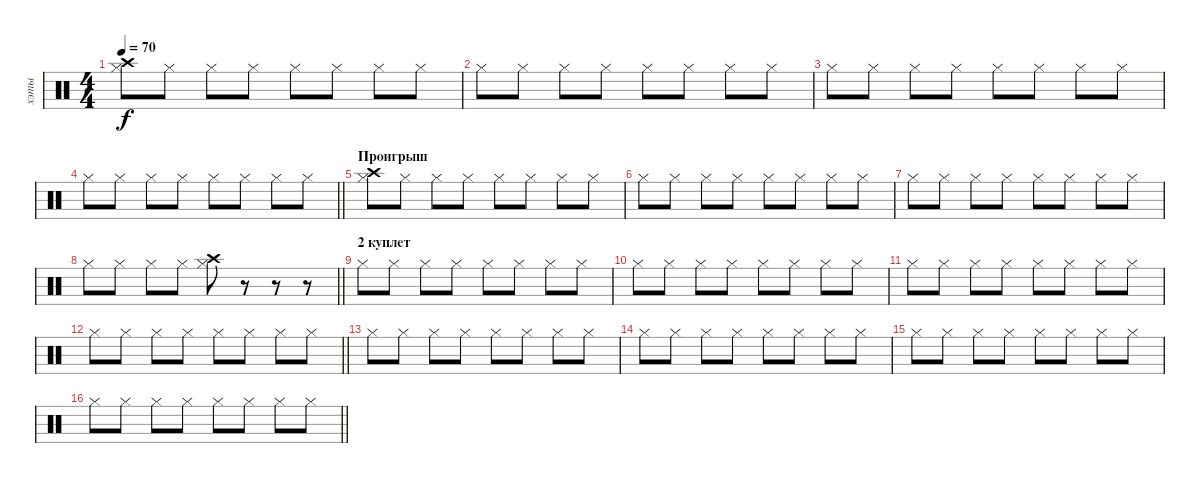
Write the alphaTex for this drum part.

\track ("хэты" "хэты") {instrument percussion}
\staff {score}
\articulation defaults
\ts (4 4)
\tempo 70
\clef neutral
\ks c
("Crash high (hit)" "Hi-Hat (closed)").8{dy f} "Hi-Hat (closed)".8 "Hi-Hat (closed)".8 "Hi-Hat (closed)".8 "Hi-Hat (closed)".8 "Hi-Hat (closed)".8 "Hi-Hat (closed)".8 "Hi-Hat (closed)".8 |
"Hi-Hat (closed)".8 "Hi-Hat (closed)".8 "Hi-Hat (closed)".8 "Hi-Hat (closed)".8 "Hi-Hat (closed)".8 "Hi-Hat (closed)".8 "Hi-Hat (closed)".8 "Hi-Hat (closed)".8 |
"Hi-Hat (closed)".8 "Hi-Hat (closed)".8 "Hi-Hat (closed)".8 "Hi-Hat (closed)".8 "Hi-Hat (closed)".8 "Hi-Hat (closed)".8 "Hi-Hat (closed)".8 "Hi-Hat (closed)".8 |
\barLineRight lightlight "Hi-Hat (closed)".8 "Hi-Hat (closed)".8 "Hi-Hat (closed)".8 "Hi-Hat (closed)".8 "Hi-Hat (closed)".8 "Hi-Hat (closed)".8 "Hi-Hat (closed)".8 "Hi-Hat (closed)".8
|
\section ("" "Проигрыш")
("Crash high (hit)" "Hi-Hat (closed)").8 "Hi-Hat (closed)".8 "Hi-Hat (closed)".8 "Hi-Hat (closed)".8 "Hi-Hat (closed)".8 "Hi-Hat (closed)".8 "Hi-Hat (closed)".8 "Hi-Hat (closed)".8 |
"Hi-Hat (closed)".8 "Hi-Hat (closed)".8 "Hi-Hat (closed)".8 "Hi-Hat (closed)".8 "Hi-Hat (closed)".8 "Hi-Hat (closed)".8 "Hi-Hat (closed)".8 "Hi-Hat (closed)".8 |
"Hi-Hat (closed)".8 "Hi-Hat (closed)".8 "Hi-Hat (closed)".8 "Hi-Hat (closed)".8 "Hi-Hat (closed)".8 "Hi-Hat (closed)".8 "Hi-Hat (closed)".8 "Hi-Hat (closed)".8 |
\barLineRight lightlight "Hi-Hat (closed)".8 "Hi-Hat (closed)".8 "Hi-Hat (closed)".8 "Hi-Hat (closed)".8
("Crash high (hit)" "Hi-Hat (closed)").8 r.8 r.8 r.8 |
\section ("" "2 куплет")
"Hi-Hat (closed)".8 "Hi-Hat (closed)".8 "Hi-Hat (closed)".8 "Hi-Hat (closed)".8 "Hi-Hat (closed)".8 "Hi-Hat (closed)".8 "Hi-Hat (closed)".8 "Hi-Hat (closed)".8 |
"Hi-Hat (closed)".8 "Hi-Hat (closed)".8 "Hi-Hat (closed)".8 "Hi-Hat (closed)".8 "Hi-Hat (closed)".8 "Hi-Hat (closed)".8 "Hi-Hat (closed)".8 "Hi-Hat (closed)".8 |
"Hi-Hat (closed)".8 "Hi-Hat (closed)".8 "Hi-Hat (closed)".8 "Hi-Hat (closed)".8 "Hi-Hat (closed)".8 "Hi-Hat (closed)".8 "Hi-Hat (closed)".8 "Hi-Hat (closed)".8 |
\barLineRight lightlight "Hi-Hat (closed)".8 "Hi-Hat (closed)".8 "Hi-Hat (closed)".8 "Hi-Hat (closed)".8 "Hi-Hat (closed)".8 "Hi-Hat (closed)".8 "Hi-Hat (closed)".8 "Hi-Hat (closed)".8
|
"Hi-Hat (closed)".8 "Hi-Hat (closed)".8 "Hi-Hat (closed)".8 "Hi-Hat (closed)".8 "Hi-Hat (closed)".8 "Hi-Hat (closed)".8 "Hi-Hat (closed)".8 "Hi-Hat (closed)".8 |
"Hi-Hat (closed)".8 "Hi-Hat (closed)".8 "Hi-Hat (closed)".8 "Hi-Hat (closed)".8 "Hi-Hat (closed)".8 "Hi-Hat (closed)".8 "Hi-Hat (closed)".8 "Hi-Hat (closed)".8 |
"Hi-Hat (closed)".8 "Hi-Hat (closed)".8 "Hi-Hat (closed)".8 "Hi-Hat (closed)".8 "Hi-Hat (closed)".8 "Hi-Hat (closed)".8 "Hi-Hat (closed)".8 "Hi-Hat (closed)".8 |
\barLineRight lightlight "Hi-Hat (closed)".8 "Hi-Hat (closed)".8 "Hi-Hat (closed)".8 "Hi-Hat (closed)".8 "Hi-Hat (closed)".8 "Hi-Hat (closed)".8 "Hi-Hat (closed)".8 "Hi-Hat (closed)".8
